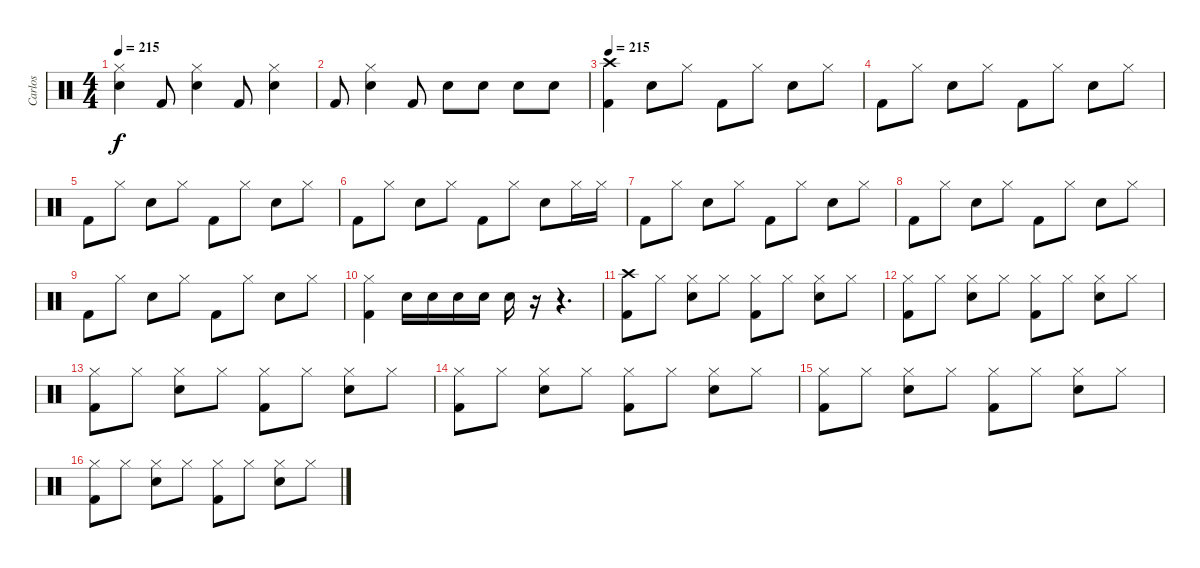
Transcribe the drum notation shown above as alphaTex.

\track ("Carlos" "Carlos") {instrument percussion}
\staff {score}
\articulation defaults
\ts (4 4)
\tempo 215
\clef neutral
\ks c
("Hi-Hat (closed)" "Snare (hit) 2").4{dy f} "Kick (hit) 2".8 ("Hi-Hat (closed)" "Snare (hit) 2").4 "Kick (hit) 2".8 ("Hi-Hat (closed)" "Snare (hit) 2").4 |
"Kick (hit) 2".8 ("Hi-Hat (closed)" "Snare (hit) 2").4 "Kick (hit) 2".8 "Snare (hit) 2".8 "Snare (hit) 2".8 "Snare (hit) 2".8 "Snare (hit) 2".8 |
\tempo 215
("Crash high (hit)" "Kick (hit) 2").4 "Snare (hit) 2".8 "Hi-Hat (closed)".8 "Kick (hit) 2".8 "Hi-Hat (closed)".8 "Snare (hit) 2".8 "Hi-Hat (closed)".8 |
"Kick (hit) 2".8 "Hi-Hat (closed)".8 "Snare (hit) 2".8 "Hi-Hat (closed)".8 "Kick (hit) 2".8 "Hi-Hat (closed)".8 "Snare (hit) 2".8 "Hi-Hat (closed)".8 |
"Kick (hit) 2".8 "Hi-Hat (closed)".8 "Snare (hit) 2".8 "Hi-Hat (closed)".8 "Kick (hit) 2".8 "Hi-Hat (closed)".8 "Snare (hit) 2".8 "Hi-Hat (closed)".8 |
"Kick (hit) 2".8 "Hi-Hat (closed)".8 "Snare (hit) 2".8 "Hi-Hat (closed)".8 "Kick (hit) 2".8 "Hi-Hat (closed)".8 "Snare (hit) 2".8 "Hi-Hat (closed)".16 "Hi-Hat (closed)".16 |
"Kick (hit) 2".8 "Hi-Hat (closed)".8 "Snare (hit) 2".8 "Hi-Hat (closed)".8 "Kick (hit) 2".8 "Hi-Hat (closed)".8 "Snare (hit) 2".8 "Hi-Hat (closed)".8 |
"Kick (hit) 2".8 "Hi-Hat (closed)".8 "Snare (hit) 2".8 "Hi-Hat (closed)".8 "Kick (hit) 2".8 "Hi-Hat (closed)".8 "Snare (hit) 2".8 "Hi-Hat (closed)".8 |
"Kick (hit) 2".8 "Hi-Hat (closed)".8 "Snare (hit) 2".8 "Hi-Hat (closed)".8 "Kick (hit) 2".8 "Hi-Hat (closed)".8 "Snare (hit) 2".8 "Hi-Hat (closed)".8 |
("Hi-Hat (closed)" "Kick (hit) 2").4 "Snare (hit) 2".16 "Snare (hit) 2".16 "Snare (hit) 2".16 "Snare (hit) 2".16 "Snare (hit) 2".16 r.16 r.4{d} |
("Crash high (hit)" "Kick (hit) 2").8 "Hi-Hat (closed)".8 ("Hi-Hat (closed)" "Snare (hit) 2").8 "Hi-Hat (closed)".8 ("Hi-Hat (closed)" "Kick (hit) 2").8 "Hi-Hat (closed)".8 ("Hi-Hat (closed)" "Snare (hit) 2").8 "Hi-Hat (closed)".8 |
("Hi-Hat (closed)" "Kick (hit) 2").8 "Hi-Hat (closed)".8 ("Hi-Hat (closed)" "Snare (hit) 2").8 "Hi-Hat (closed)".8 ("Hi-Hat (closed)" "Kick (hit) 2").8 "Hi-Hat (closed)".8 ("Hi-Hat (closed)" "Snare (hit) 2").8 "Hi-Hat (closed)".8 |
("Hi-Hat (closed)" "Kick (hit) 2").8 "Hi-Hat (closed)".8 ("Hi-Hat (closed)" "Snare (hit) 2").8 "Hi-Hat (closed)".8 ("Hi-Hat (closed)" "Kick (hit) 2").8 "Hi-Hat (closed)".8 ("Hi-Hat (closed)" "Snare (hit) 2").8 "Hi-Hat (closed)".8 |
("Hi-Hat (closed)" "Kick (hit) 2").8 "Hi-Hat (closed)".8 ("Hi-Hat (closed)" "Snare (hit) 2").8 "Hi-Hat (closed)".8 ("Hi-Hat (closed)" "Kick (hit) 2").8 "Hi-Hat (closed)".8 ("Hi-Hat (closed)" "Snare (hit) 2").8 "Hi-Hat (closed)".8 |
("Hi-Hat (closed)" "Kick (hit) 2").8 "Hi-Hat (closed)".8 ("Hi-Hat (closed)" "Snare (hit) 2").8 "Hi-Hat (closed)".8 ("Hi-Hat (closed)" "Kick (hit) 2").8 "Hi-Hat (closed)".8 ("Hi-Hat (closed)" "Snare (hit) 2").8 "Hi-Hat (closed)".8 |
("Hi-Hat (closed)" "Kick (hit) 2").8 "Hi-Hat (closed)".8 ("Hi-Hat (closed)" "Snare (hit) 2").8 "Hi-Hat (closed)".8 ("Hi-Hat (closed)" "Kick (hit) 2").8 "Hi-Hat (closed)".8 ("Hi-Hat (closed)" "Snare (hit) 2").8 "Hi-Hat (closed)".8
